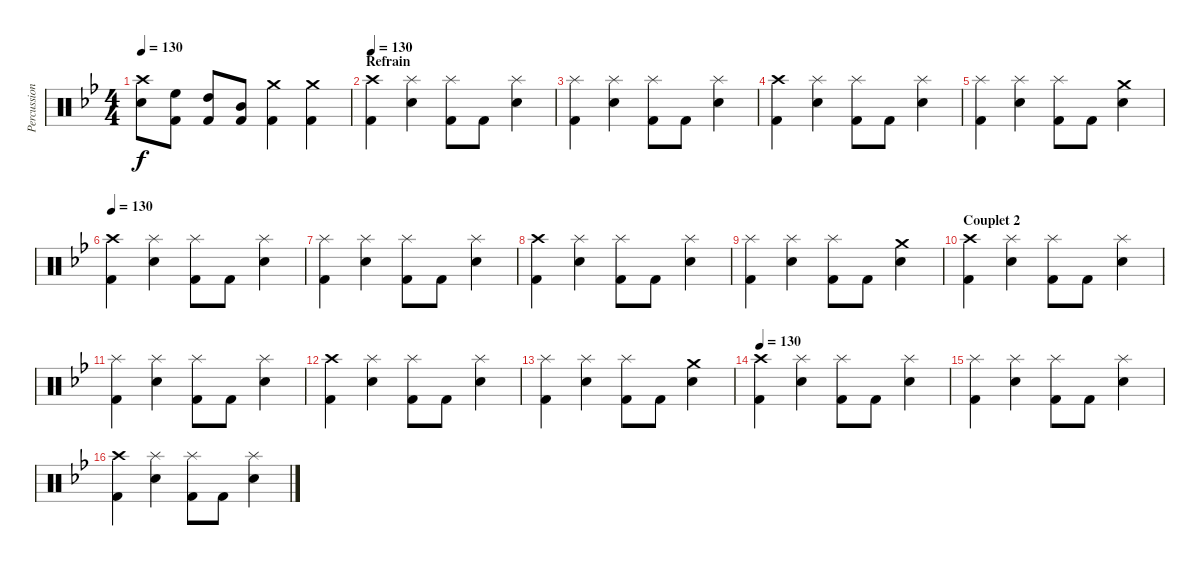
\track ("Percussions" "Percussion") {instrument percussion}
\staff {score}
\articulation defaults
\ts (4 4)
\tempo 130
\clef neutral
\ks gminor
("Crash high (hit)" "Electric Snare (hit)").8{dy f} ("High Floor Tom (hit)" "Kick (hit) 2").8 ("High Tom (hit)" "Kick (hit) 2").8 ("Mid Tom (hit)" "Kick (hit) 2").8 ("Crash medium (hit)" "Kick (hit) 2").4 ("Crash medium (hit)" "Kick (hit) 2").4 |
\section ("" "Refrain")
\tempo 130
("Crash high (hit)" "Kick (hit) 2").4 ("Splash (hit)" "Electric Snare (hit)").4 ("Splash (hit)" "Kick (hit) 2").8 "Kick (hit) 2".8 ("Splash (hit)" "Electric Snare (hit)").4 |
("Splash (hit)" "Kick (hit) 2").4 ("Splash (hit)" "Electric Snare (hit)").4 ("Splash (hit)" "Kick (hit) 2").8 "Kick (hit) 2".8 ("Splash (hit)" "Electric Snare (hit)").4 |
("Crash high (hit)" "Kick (hit) 2").4 ("Splash (hit)" "Electric Snare (hit)").4 ("Splash (hit)" "Kick (hit) 2").8 "Kick (hit) 2".8 ("Splash (hit)" "Electric Snare (hit)").4 |
("Splash (hit)" "Kick (hit) 2").4 ("Splash (hit)" "Electric Snare (hit)").4 ("Splash (hit)" "Kick (hit) 2").8 "Kick (hit) 2".8 ("Crash medium (hit)" "Electric Snare (hit)").4 |
\tempo 130
("Crash high (hit)" "Kick (hit) 2").4 ("Splash (hit)" "Electric Snare (hit)").4 ("Splash (hit)" "Kick (hit) 2").8 "Kick (hit) 2".8 ("Splash (hit)" "Electric Snare (hit)").4 |
("Splash (hit)" "Kick (hit) 2").4 ("Splash (hit)" "Electric Snare (hit)").4 ("Splash (hit)" "Kick (hit) 2").8 "Kick (hit) 2".8 ("Splash (hit)" "Electric Snare (hit)").4 |
("Crash high (hit)" "Kick (hit) 2").4 ("Splash (hit)" "Electric Snare (hit)").4 ("Splash (hit)" "Kick (hit) 2").8 "Kick (hit) 2".8 ("Splash (hit)" "Electric Snare (hit)").4 |
("Splash (hit)" "Kick (hit) 2").4 ("Splash (hit)" "Electric Snare (hit)").4 ("Splash (hit)" "Kick (hit) 2").8 "Kick (hit) 2".8 ("Crash medium (hit)" "Electric Snare (hit)").4 |
\section ("" "Couplet 2")
("Crash high (hit)" "Kick (hit) 2").4 ("Splash (hit)" "Electric Snare (hit)").4 ("Splash (hit)" "Kick (hit) 2").8 "Kick (hit) 2".8 ("Splash (hit)" "Electric Snare (hit)").4 |
("Splash (hit)" "Kick (hit) 2").4 ("Splash (hit)" "Electric Snare (hit)").4 ("Splash (hit)" "Kick (hit) 2").8 "Kick (hit) 2".8 ("Splash (hit)" "Electric Snare (hit)").4 |
("Crash high (hit)" "Kick (hit) 2").4 ("Splash (hit)" "Electric Snare (hit)").4 ("Splash (hit)" "Kick (hit) 2").8 "Kick (hit) 2".8 ("Splash (hit)" "Electric Snare (hit)").4 |
("Splash (hit)" "Kick (hit) 2").4 ("Splash (hit)" "Electric Snare (hit)").4 ("Splash (hit)" "Kick (hit) 2").8 "Kick (hit) 2".8 ("Crash medium (hit)" "Electric Snare (hit)").4 |
\tempo 130
("Crash high (hit)" "Kick (hit) 2").4 ("Splash (hit)" "Electric Snare (hit)").4 ("Splash (hit)" "Kick (hit) 2").8 "Kick (hit) 2".8 ("Splash (hit)" "Electric Snare (hit)").4 |
("Splash (hit)" "Kick (hit) 2").4 ("Splash (hit)" "Electric Snare (hit)").4 ("Splash (hit)" "Kick (hit) 2").8 "Kick (hit) 2".8 ("Splash (hit)" "Electric Snare (hit)").4 |
("Crash high (hit)" "Kick (hit) 2").4 ("Splash (hit)" "Electric Snare (hit)").4 ("Splash (hit)" "Kick (hit) 2").8 "Kick (hit) 2".8 ("Splash (hit)" "Electric Snare (hit)").4
